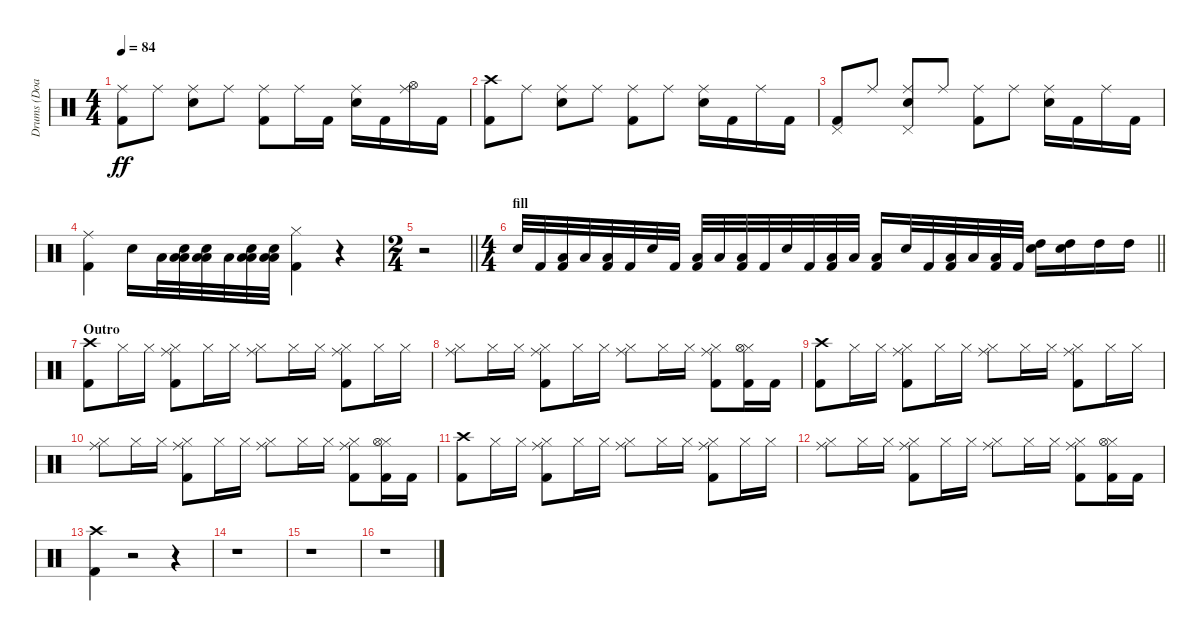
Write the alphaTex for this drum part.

\track ("Drums (Doane Perry)" "Drums (Doa") {instrument percussion}
\staff {score}
\articulation defaults
\ts (4 4)
\tempo 84
\clef neutral
\ks c
("Kick (hit) 2" "Ride (middle)").8{dy ff} "Ride (middle)".8 ("Snare (hit) 2" "Ride (middle)").8 "Ride (middle)".8 ("Kick (hit) 2" "Ride (middle)").8 "Ride (middle)".16 "Kick (hit) 2".16 ("Snare (hit) 2" "Ride (middle)").16 "Kick (hit) 2".16 ("Hi-Hat (open)" "Ride (middle)").16 "Kick (hit) 2".16 |
("Kick (hit) 2" "Crash high (hit)").8 "Ride (middle)".8 ("Snare (hit) 2" "Ride (middle)").8 "Ride (middle)".8 ("Kick (hit) 2" "Ride (middle)").8 "Ride (middle)".8 ("Snare (hit) 2" "Ride (middle)").16 "Kick (hit) 2".16 "Ride (middle)".16 "Kick (hit) 2".16 |
("Kick (hit) 2" "Pedal Hi-Hat (hit)").8 "Ride (middle)".8 ("Snare (hit) 2" "Pedal Hi-Hat (hit)" "Ride (middle)").8 "Ride (middle)".8 ("Kick (hit) 2" "Ride (middle)").8 "Ride (middle)".8 ("Snare (hit) 2" "Ride (middle)").16 "Kick (hit) 2".16 "Ride (middle)".16 "Kick (hit) 2".16 |
("Kick (hit) 2" "Ride (middle)").4 "Snare (hit) 2".16 "Low Floor Tom (hit)".32 ("Snare (hit) 2" "Low Floor Tom (hit)" "Low Tom (hit)").32 ("Snare (hit) 2" "Low Floor Tom (hit)" "Low Tom (hit)").32 "Low Floor Tom (hit)".32 ("Snare (hit) 2" "Low Floor Tom (hit)" "Low Tom (hit)").32 ("Snare (hit) 2" "Low Floor Tom (hit)" "Low Tom (hit)").32 ("Kick (hit) 2" "Hi-Hat (closed)").4 r.4 |
\ts (2 4)
\barLineRight lightlight
r.2 |
\ts (4 4)
\section ("" "fill")
\barLineRight lightlight "Snare (hit) 2".32 "Kick (hit) 2".32
("Kick (hit) 2" "Low Floor Tom (hit)").32 "Low Floor Tom (hit)".32 ("Kick (hit) 2" "Low Floor Tom (hit)").32 "Kick (hit) 2".32 "Snare (hit) 2".32 "Kick (hit) 2".32 ("Kick (hit) 2" "Low Floor Tom (hit)").32 "Low Floor Tom (hit)".32 ("Kick (hit) 2" "Low Floor Tom (hit)").32 "Kick (hit) 2".32 "Snare (hit) 2".32 "Kick (hit) 2".32 ("Kick (hit) 2" "Low Floor Tom (hit)").32 "Low Floor Tom (hit)".32 ("Kick (hit) 2" "Low Floor Tom (hit)").16 "Snare (hit) 2".32 "Kick (hit) 2".32 ("Kick (hit) 2" "Low Floor Tom (hit)").32 "Low Floor Tom (hit)".32 ("Kick (hit) 2" "Low Floor Tom (hit)").32 "Kick (hit) 2".32 ("Snare (hit) 2" "High Tom (hit)").16 ("Snare (hit) 2" "High Tom (hit)").16 "High Tom (hit)".16 "High Tom (hit)".16 |
\section ("" "Outro")
("Kick (hit) 2" "Crash high (hit)").8 "Hi-Hat (closed)".16 "Hi-Hat (closed)".16 ("Kick (hit) 2" "Hi-Hat (closed)" "Ride (middle)").8 "Hi-Hat (closed)".16 "Hi-Hat (closed)".16 ("Hi-Hat (closed)" "Ride (middle)").8 "Hi-Hat (closed)".16 "Hi-Hat (closed)".16 ("Kick (hit) 2" "Hi-Hat (closed)" "Ride (middle)").8 "Hi-Hat (closed)".16 "Hi-Hat (closed)".16 |
("Hi-Hat (closed)" "Ride (middle)").8 "Hi-Hat (closed)".16 "Hi-Hat (closed)".16 ("Kick (hit) 2" "Hi-Hat (closed)" "Ride (middle)").8 "Hi-Hat (closed)".16 "Hi-Hat (closed)".16 ("Hi-Hat (closed)" "Ride (middle)").8 "Hi-Hat (closed)".16 "Hi-Hat (closed)".16 ("Kick (hit) 2" "Hi-Hat (closed)" "Ride (middle)").8 ("Kick (hit) 2" "Hi-Hat (closed)" "Hi-Hat (open)").16 "Kick (hit) 2".16 |
("Kick (hit) 2" "Crash high (hit)").8 "Hi-Hat (closed)".16 "Hi-Hat (closed)".16 ("Kick (hit) 2" "Hi-Hat (closed)" "Ride (middle)").8 "Hi-Hat (closed)".16 "Hi-Hat (closed)".16 ("Hi-Hat (closed)" "Ride (middle)").8 "Hi-Hat (closed)".16 "Hi-Hat (closed)".16 ("Kick (hit) 2" "Hi-Hat (closed)" "Ride (middle)").8 "Hi-Hat (closed)".16 "Hi-Hat (closed)".16 |
("Hi-Hat (closed)" "Ride (middle)").8 "Hi-Hat (closed)".16 "Hi-Hat (closed)".16 ("Kick (hit) 2" "Hi-Hat (closed)" "Ride (middle)").8 "Hi-Hat (closed)".16 "Hi-Hat (closed)".16 ("Hi-Hat (closed)" "Ride (middle)").8 "Hi-Hat (closed)".16 "Hi-Hat (closed)".16 ("Kick (hit) 2" "Hi-Hat (closed)" "Ride (middle)").8 ("Kick (hit) 2" "Hi-Hat (closed)" "Hi-Hat (open)").16 "Kick (hit) 2".16 |
("Kick (hit) 2" "Crash high (hit)").8 "Hi-Hat (closed)".16 "Hi-Hat (closed)".16 ("Kick (hit) 2" "Hi-Hat (closed)" "Ride (middle)").8 "Hi-Hat (closed)".16 "Hi-Hat (closed)".16 ("Hi-Hat (closed)" "Ride (middle)").8 "Hi-Hat (closed)".16 "Hi-Hat (closed)".16 ("Kick (hit) 2" "Hi-Hat (closed)" "Ride (middle)").8 "Hi-Hat (closed)".16 "Hi-Hat (closed)".16 |
("Hi-Hat (closed)" "Ride (middle)").8 "Hi-Hat (closed)".16 "Hi-Hat (closed)".16 ("Kick (hit) 2" "Hi-Hat (closed)" "Ride (middle)").8 "Hi-Hat (closed)".16 "Hi-Hat (closed)".16 ("Hi-Hat (closed)" "Ride (middle)").8 "Hi-Hat (closed)".16 "Hi-Hat (closed)".16 ("Kick (hit) 2" "Hi-Hat (closed)" "Ride (middle)").8 ("Kick (hit) 2" "Hi-Hat (closed)" "Hi-Hat (open)").16 "Kick (hit) 2".16 |
("Kick (hit) 2" "Crash high (hit)").4 r.2 r.4 |
r.1 |
r.1 |
r.1
